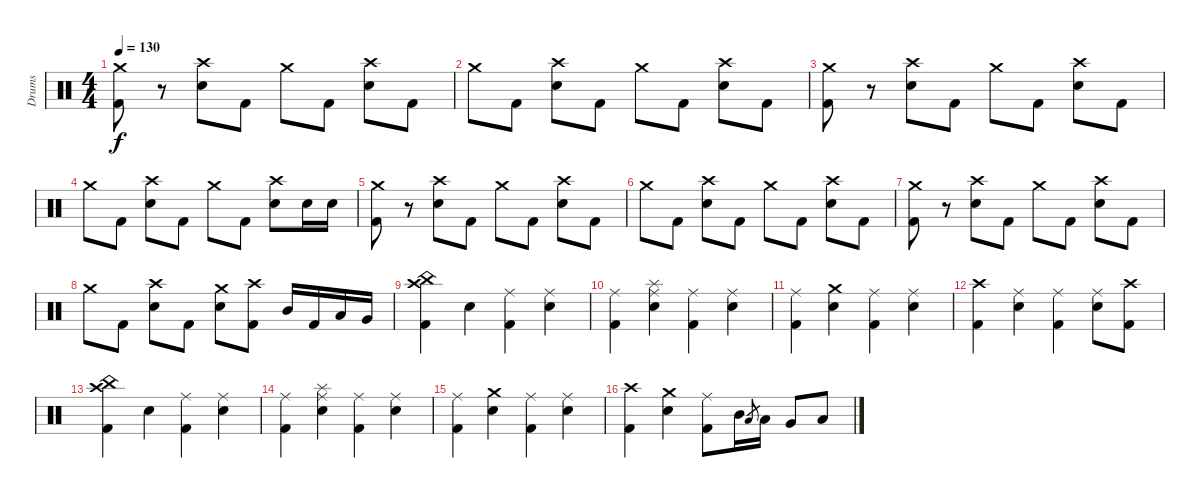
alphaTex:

\track ("Drums" "Drums") {instrument percussion}
\staff {score}
\articulation defaults
\ts (4 4)
\tempo 130
\clef neutral
\ks c
("Crash medium (hit)" "Kick (hit) 2").8{dy f} r.8 ("Crash high (hit)" "Electric Snare (hit)").8 "Kick (hit) 2".8 "Crash medium (hit)".8 "Kick (hit) 2".8 ("Crash high (hit)" "Electric Snare (hit)").8 "Kick (hit) 2".8 |
"Crash medium (hit)".8 "Kick (hit) 2".8 ("Crash high (hit)" "Electric Snare (hit)").8 "Kick (hit) 2".8 "Crash medium (hit)".8 "Kick (hit) 2".8 ("Crash high (hit)" "Electric Snare (hit)").8 "Kick (hit) 2".8 |
("Crash medium (hit)" "Kick (hit) 2").8 r.8 ("Crash high (hit)" "Electric Snare (hit)").8 "Kick (hit) 2".8 "Crash medium (hit)".8 "Kick (hit) 2".8 ("Crash high (hit)" "Electric Snare (hit)").8 "Kick (hit) 2".8 |
"Crash medium (hit)".8 "Kick (hit) 2".8 ("Crash high (hit)" "Electric Snare (hit)").8 "Kick (hit) 2".8 "Crash medium (hit)".8 "Kick (hit) 2".8 ("Crash high (hit)" "Electric Snare (hit)").8 "Electric Snare (hit)".16 "Electric Snare (hit)".16 |
("Crash medium (hit)" "Kick (hit) 2").8 r.8 ("Crash high (hit)" "Electric Snare (hit)").8 "Kick (hit) 2".8 "Crash medium (hit)".8 "Kick (hit) 2".8 ("Crash high (hit)" "Electric Snare (hit)").8 "Kick (hit) 2".8 |
"Crash medium (hit)".8 "Kick (hit) 2".8 ("Crash high (hit)" "Electric Snare (hit)").8 "Kick (hit) 2".8 "Crash medium (hit)".8 "Kick (hit) 2".8 ("Crash high (hit)" "Electric Snare (hit)").8 "Kick (hit) 2".8 |
("Crash medium (hit)" "Kick (hit) 2").8 r.8 ("Crash high (hit)" "Electric Snare (hit)").8 "Kick (hit) 2".8 "Crash medium (hit)".8 "Kick (hit) 2".8 ("Crash high (hit)" "Electric Snare (hit)").8 "Kick (hit) 2".8 |
"Crash medium (hit)".8 "Kick (hit) 2".8 ("Crash high (hit)" "Electric Snare (hit)").8 "Kick (hit) 2".8 ("Crash medium (hit)" "Electric Snare (hit)").8 ("Crash high (hit)" "Kick (hit) 2").8 "Mid Tom (hit)".16 "Kick (hit) 2".16 "Low Tom (hit)".16 "Very Low Tom (hit)".16 |
("China (hit)" "Crash high (hit)" "Kick (hit) 2").4 "Electric Snare (hit)".4 ("Ride (middle)" "Kick (hit) 2").4 ("Ride (middle)" "Electric Snare (hit)").4 |
("Ride (middle)" "Kick (hit) 2").4 ("Splash (hit)" "Ride (middle)" "Electric Snare (hit)").4 ("Ride (middle)" "Kick (hit) 2").4 ("Ride (middle)" "Electric Snare (hit)").4 |
("Ride (middle)" "Kick (hit) 2").4 ("Crash medium (hit)" "Electric Snare (hit)").4 ("Ride (middle)" "Kick (hit) 2").4 ("Ride (middle)" "Electric Snare (hit)").4 |
("Crash high (hit)" "Kick (hit) 2").4 ("Ride (middle)" "Electric Snare (hit)").4 ("Ride (middle)" "Kick (hit) 2").4 ("Ride (middle)" "Electric Snare (hit)").8 ("Crash high (hit)" "Kick (hit) 2").8 |
("China (hit)" "Crash high (hit)" "Kick (hit) 2").4 "Electric Snare (hit)".4 ("Ride (middle)" "Kick (hit) 2").4 ("Ride (middle)" "Electric Snare (hit)").4 |
("Ride (middle)" "Kick (hit) 2").4 ("Splash (hit)" "Ride (middle)" "Electric Snare (hit)").4 ("Ride (middle)" "Kick (hit) 2").4 ("Ride (middle)" "Electric Snare (hit)").4 |
("Ride (middle)" "Kick (hit) 2").4 ("Crash medium (hit)" "Electric Snare (hit)").4 ("Ride (middle)" "Kick (hit) 2").4 ("Ride (middle)" "Electric Snare (hit)").4 |
("Crash high (hit)" "Kick (hit) 2").4 ("Crash medium (hit)" "Electric Snare (hit)").4 ("Ride (middle)" "Kick (hit) 2").8 "Mid Tom (hit)".16 "Low Tom (hit)".8{gr} "Low Tom (hit)".16 "Very Low Tom (hit)".8 "Low Floor Tom (hit)".8
